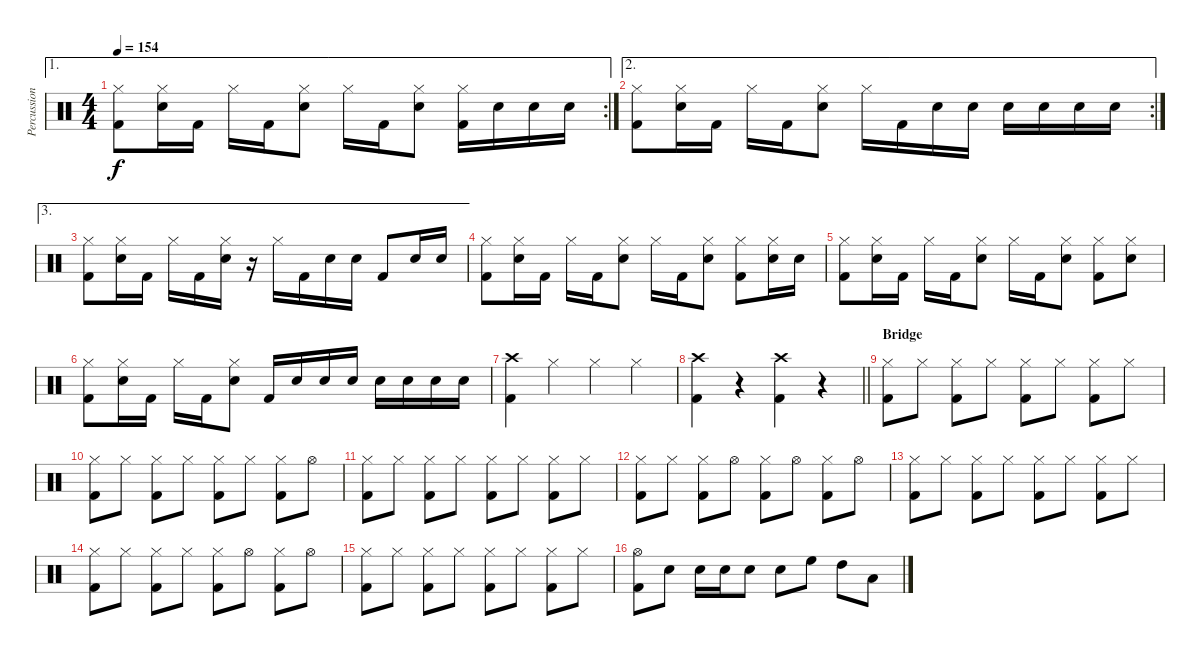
\track ("Percussion" "Percussion") {instrument percussion}
\staff {score}
\articulation defaults
\ae 1
\rc 2
\ts (4 4)
\tempo 154
\clef neutral
\ks c
("Hi-Hat (closed)" "Kick (hit) 2").8{dy f} ("Hi-Hat (closed)" "Snare (hit) 2").16 "Kick (hit) 2".16 "Hi-Hat (closed)".16 "Kick (hit) 2".16 ("Hi-Hat (closed)" "Snare (hit) 2").8 "Hi-Hat (closed)".16 "Kick (hit) 2".16 ("Hi-Hat (closed)" "Snare (hit) 2").8 ("Hi-Hat (closed)" "Kick (hit) 2").16 "Snare (hit) 2".16 "Snare (hit) 2".16 "Snare (hit) 2".16 |
\ae 2
\rc 2
("Hi-Hat (closed)" "Kick (hit) 2").8 ("Hi-Hat (closed)" "Snare (hit) 2").16 "Kick (hit) 2".16 "Hi-Hat (closed)".16 "Kick (hit) 2".16 ("Hi-Hat (closed)" "Snare (hit) 2").8 "Hi-Hat (closed)".16 "Kick (hit) 2".16 "Snare (hit) 2".16 "Snare (hit) 2".16 "Snare (hit) 2".16 "Snare (hit) 2".16 "Snare (hit) 2".16 "Snare (hit) 2".16 |
\ae 3
("Hi-Hat (closed)" "Kick (hit) 2").8 ("Hi-Hat (closed)" "Snare (hit) 2").16 "Kick (hit) 2".16 "Hi-Hat (closed)".16 "Kick (hit) 2".16 ("Hi-Hat (closed)" "Snare (hit) 2").16 r.16 "Hi-Hat (closed)".16 "Kick (hit) 2".16 "Snare (hit) 2".16 "Snare (hit) 2".16 "Kick (hit) 2".8 "Snare (hit) 2".16 "Snare (hit) 2".16 |
("Hi-Hat (closed)" "Kick (hit) 2").8 ("Hi-Hat (closed)" "Snare (hit) 2").16 "Kick (hit) 2".16 "Hi-Hat (closed)".16 "Kick (hit) 2".16 ("Hi-Hat (closed)" "Snare (hit) 2").8 "Hi-Hat (closed)".16 "Kick (hit) 2".16 ("Hi-Hat (closed)" "Snare (hit) 2").8 ("Hi-Hat (closed)" "Kick (hit) 2").8 ("Hi-Hat (closed)" "Snare (hit) 2").16 "Snare (hit) 2".16 |
("Hi-Hat (closed)" "Kick (hit) 2").8 ("Hi-Hat (closed)" "Snare (hit) 2").16 "Kick (hit) 2".16 "Hi-Hat (closed)".16 "Kick (hit) 2".16 ("Hi-Hat (closed)" "Snare (hit) 2").8 "Hi-Hat (closed)".16 "Kick (hit) 2".16 ("Hi-Hat (closed)" "Snare (hit) 2").8 ("Hi-Hat (closed)" "Kick (hit) 2").8 ("Hi-Hat (closed)" "Snare (hit) 2").8 |
("Hi-Hat (closed)" "Kick (hit) 2").8 ("Hi-Hat (closed)" "Snare (hit) 2").16 "Kick (hit) 2".16 "Hi-Hat (closed)".16 "Kick (hit) 2".16 ("Hi-Hat (closed)" "Snare (hit) 2").8 "Kick (hit) 2".16 "Snare (hit) 2".16 "Snare (hit) 2".16 "Snare (hit) 2".16 "Snare (hit) 2".16 "Snare (hit) 2".16 "Snare (hit) 2".16 "Snare (hit) 2".16 |
("Crash high (hit)" "Kick (hit) 2").4 "Hi-Hat (closed)".4 "Hi-Hat (closed)".4 "Hi-Hat (closed)".4 |
\barLineRight lightlight
("Crash high (hit)" "Kick (hit) 2").4 r.4 ("Crash high (hit)" "Kick (hit) 2").4 r.4 |
\section ("" "Bridge")
("Hi-Hat (closed)" "Kick (hit) 2").8 "Hi-Hat (closed)".8 ("Hi-Hat (closed)" "Kick (hit) 2").8 "Hi-Hat (closed)".8 ("Hi-Hat (closed)" "Kick (hit) 2").8 "Hi-Hat (closed)".8 ("Hi-Hat (closed)" "Kick (hit) 2").8 "Hi-Hat (closed)".8 |
("Hi-Hat (closed)" "Kick (hit) 2").8 "Hi-Hat (closed)".8 ("Hi-Hat (closed)" "Kick (hit) 2").8 "Hi-Hat (closed)".8 ("Hi-Hat (closed)" "Kick (hit) 2").8 "Hi-Hat (closed)".8 ("Hi-Hat (closed)" "Kick (hit) 2").8 "Hi-Hat (open)".8 |
("Hi-Hat (closed)" "Kick (hit) 2").8 "Hi-Hat (closed)".8 ("Hi-Hat (closed)" "Kick (hit) 2").8 "Hi-Hat (closed)".8 ("Hi-Hat (closed)" "Kick (hit) 2").8 "Hi-Hat (closed)".8 ("Hi-Hat (closed)" "Kick (hit) 2").8 "Hi-Hat (closed)".8 |
("Hi-Hat (closed)" "Kick (hit) 2").8 "Hi-Hat (closed)".8 ("Hi-Hat (closed)" "Kick (hit) 2").8 "Hi-Hat (open)".8 ("Hi-Hat (closed)" "Kick (hit) 2").8 "Hi-Hat (open)".8 ("Hi-Hat (closed)" "Kick (hit) 2").8 "Hi-Hat (open)".8 |
("Hi-Hat (closed)" "Kick (hit) 2").8 "Hi-Hat (closed)".8 ("Hi-Hat (closed)" "Kick (hit) 2").8 "Hi-Hat (closed)".8 ("Hi-Hat (closed)" "Kick (hit) 2").8 "Hi-Hat (closed)".8 ("Hi-Hat (closed)" "Kick (hit) 2").8 "Hi-Hat (closed)".8 |
("Hi-Hat (closed)" "Kick (hit) 2").8 "Hi-Hat (closed)".8 ("Hi-Hat (closed)" "Kick (hit) 2").8 "Hi-Hat (closed)".8 ("Hi-Hat (closed)" "Kick (hit) 2").8 "Hi-Hat (open)".8 ("Hi-Hat (closed)" "Kick (hit) 2").8 "Hi-Hat (open)".8 |
("Hi-Hat (closed)" "Kick (hit) 2").8 "Hi-Hat (closed)".8 ("Hi-Hat (closed)" "Kick (hit) 2").8 "Hi-Hat (closed)".8 ("Hi-Hat (closed)" "Kick (hit) 2").8 "Hi-Hat (closed)".8 ("Hi-Hat (closed)" "Kick (hit) 2").8 "Hi-Hat (closed)".8 |
("Hi-Hat (open)" "Kick (hit) 2").8 "Snare (hit) 2".8 "Snare (hit) 2".16 "Snare (hit) 2".16 "Snare (hit) 2".8 "Snare (hit) 2".8 "High Floor Tom (hit)".8 "High Tom (hit)".8 "Low Floor Tom (hit)".8
